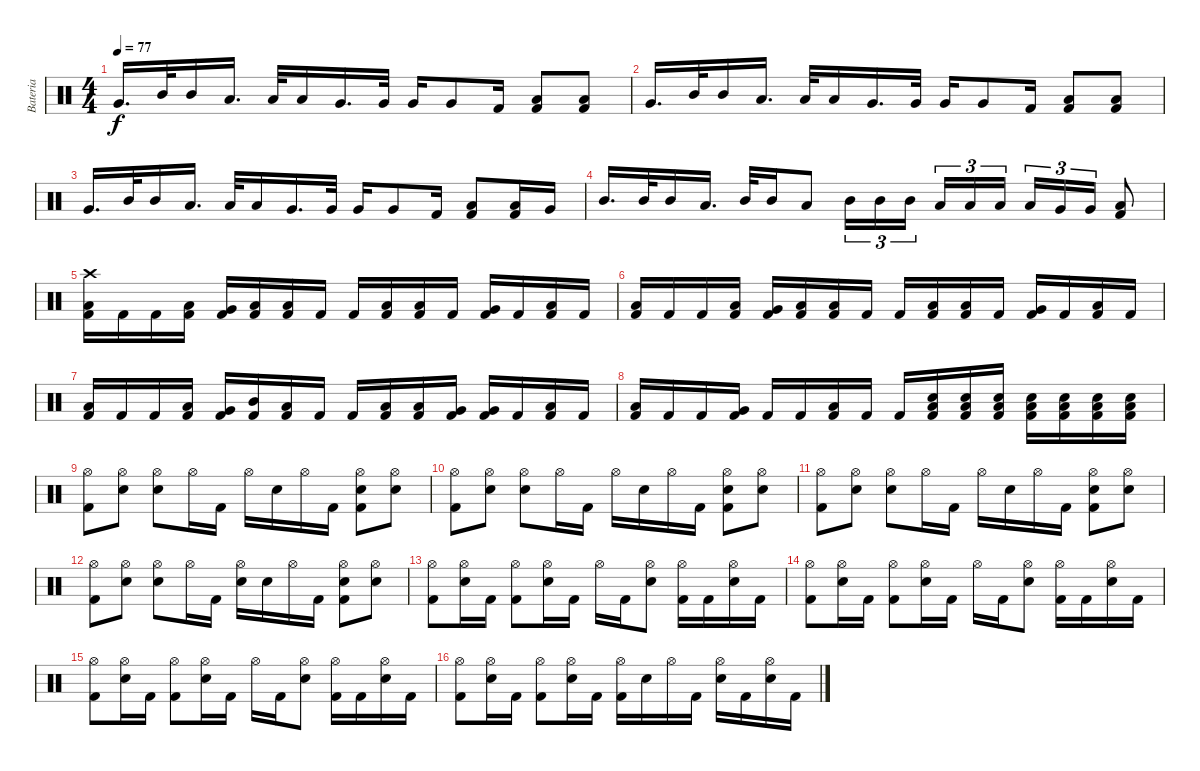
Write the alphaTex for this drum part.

\track ("Bateria" "Bateria") {instrument percussion}
\staff {score}
\articulation defaults
\ts (4 4)
\tempo 77
\clef neutral
\ks c "Very Low Tom (hit)".16{d dy f} "Mid Tom (hit)".32 "Mid Tom (hit)".16 "Low Tom (hit)".16{d} "Low Tom (hit)".32 "Low Tom (hit)".16 "Very Low Tom (hit)".16{d} "Very Low Tom (hit)".32 "Very Low Tom (hit)".16 "Very Low Tom (hit)".8 "Kick (hit) 2".16
("Low Floor Tom (hit)" "Kick (hit) 2").8 ("Low Floor Tom (hit)" "Kick (hit) 2").8 |
"Very Low Tom (hit)".16{d} "Mid Tom (hit)".32 "Mid Tom (hit)".16 "Low Tom (hit)".16{d} "Low Tom (hit)".32 "Low Tom (hit)".16 "Very Low Tom (hit)".16{d} "Very Low Tom (hit)".32 "Very Low Tom (hit)".16 "Very Low Tom (hit)".8 "Kick (hit) 2".16 ("Low Floor Tom (hit)" "Kick (hit) 2").8 ("Low Floor Tom (hit)" "Kick (hit) 2").8 |
"Very Low Tom (hit)".16{d} "Mid Tom (hit)".32 "Mid Tom (hit)".16 "Low Tom (hit)".16{d} "Low Tom (hit)".32 "Low Tom (hit)".16 "Very Low Tom (hit)".16{d} "Very Low Tom (hit)".32 "Very Low Tom (hit)".16 "Very Low Tom (hit)".8 "Kick (hit) 2".16 ("Low Floor Tom (hit)" "Kick (hit) 2").8 ("Low Floor Tom (hit)" "Kick (hit) 2").16 "Very Low Tom (hit)".16 |
"Mid Tom (hit)".16{d} "Mid Tom (hit)".32 "Mid Tom (hit)".16 "Low Tom (hit)".16{d} "Mid Tom (hit)".32 "Mid Tom (hit)".16 "Low Tom (hit)".8 "Mid Tom (hit)".16{tu (3 2)} "Mid Tom (hit)".16{tu (3 2)} "Mid Tom (hit)".16{tu (3 2) beam splitsecondary} "Low Tom (hit)".16{tu (3 2)} "Low Tom (hit)".16{tu (3 2)} "Low Tom (hit)".16{tu (3 2)} "Low Tom (hit)".16{tu (3 2)} "Very Low Tom (hit)".16{tu (3 2)} "Very Low Tom (hit)".16{tu (3 2)} ("Low Floor Tom (hit)" "Kick (hit) 2").8 |
("Crash high (hit)" "Low Tom (hit)" "Kick (hit) 2").16 "Kick (hit) 2".16 "Kick (hit) 2".16 ("Low Tom (hit)" "Kick (hit) 2").16 ("Very Low Tom (hit)" "Kick (hit) 2").16 ("Low Floor Tom (hit)" "Kick (hit) 2").16 ("Low Tom (hit)" "Kick (hit) 2").16 "Kick (hit) 2".16 "Kick (hit) 2".16 ("Low Tom (hit)" "Kick (hit) 2").16 ("Low Tom (hit)" "Kick (hit) 2").16 "Kick (hit) 2".16 ("Very Low Tom (hit)" "Kick (hit) 2").16 "Kick (hit) 2".16 ("Low Floor Tom (hit)" "Kick (hit) 2").16 "Kick (hit) 2".16 |
("Low Tom (hit)" "Kick (hit) 2").16 "Kick (hit) 2".16 "Kick (hit) 2".16 ("Low Tom (hit)" "Kick (hit) 2").16 ("Very Low Tom (hit)" "Kick (hit) 2").16 ("Low Floor Tom (hit)" "Kick (hit) 2").16 ("Low Tom (hit)" "Kick (hit) 2").16 "Kick (hit) 2".16 "Kick (hit) 2".16 ("Low Tom (hit)" "Kick (hit) 2").16 ("Low Tom (hit)" "Kick (hit) 2").16 "Kick (hit) 2".16 ("Very Low Tom (hit)" "Kick (hit) 2").16 "Kick (hit) 2".16 ("Low Floor Tom (hit)" "Kick (hit) 2").16 "Kick (hit) 2".16 |
("Low Tom (hit)" "Kick (hit) 2").16 "Kick (hit) 2".16 "Kick (hit) 2".16 ("Low Tom (hit)" "Kick (hit) 2").16 ("Very Low Tom (hit)" "Kick (hit) 2").16 ("Mid Tom (hit)" "Kick (hit) 2").16 ("Low Tom (hit)" "Kick (hit) 2").16 "Kick (hit) 2".16 "Kick (hit) 2".16 ("Low Tom (hit)" "Kick (hit) 2").16 ("Low Tom (hit)" "Kick (hit) 2").16 ("Very Low Tom (hit)" "Kick (hit) 2").16 ("Very Low Tom (hit)" "Kick (hit) 2").16 "Kick (hit) 2".16 ("Low Floor Tom (hit)" "Kick (hit) 2").16 "Kick (hit) 2".16 |
("Low Tom (hit)" "Kick (hit) 2").16 "Kick (hit) 2".16 "Kick (hit) 2".16 ("Very Low Tom (hit)" "Kick (hit) 2").16 "Kick (hit) 2".16 "Kick (hit) 2".16 ("Low Floor Tom (hit)" "Kick (hit) 2").16 "Kick (hit) 2".16 "Kick (hit) 2".16 ("Low Tom (hit)" "Electric Snare (hit)" "Kick (hit) 2").16 ("Low Tom (hit)" "Electric Snare (hit)" "Kick (hit) 2").16 ("Low Tom (hit)" "Electric Snare (hit)" "Kick (hit) 2").16 ("Low Tom (hit)" "Electric Snare (hit)" "Kick (hit) 2").16 ("Low Tom (hit)" "Electric Snare (hit)" "Kick (hit) 2").16 ("Low Tom (hit)" "Electric Snare (hit)" "Kick (hit) 2").16 ("Low Tom (hit)" "Electric Snare (hit)" "Kick (hit) 2").16 |
("Hi-Hat (open)" "Kick (hit) 2").8 ("Hi-Hat (open)" "Electric Snare (hit)").8 ("Hi-Hat (open)" "Electric Snare (hit)").8 "Hi-Hat (open)".16 "Kick (hit) 2".16 "Hi-Hat (open)".16 "Electric Snare (hit)".16 "Hi-Hat (open)".16 "Kick (hit) 2".16 ("Hi-Hat (open)" "Electric Snare (hit)" "Kick (hit) 2").8 ("Hi-Hat (open)" "Electric Snare (hit)").8 |
("Hi-Hat (open)" "Kick (hit) 2").8 ("Hi-Hat (open)" "Electric Snare (hit)").8 ("Hi-Hat (open)" "Electric Snare (hit)").8 "Hi-Hat (open)".16 "Kick (hit) 2".16 "Hi-Hat (open)".16 "Electric Snare (hit)".16 "Hi-Hat (open)".16 "Kick (hit) 2".16 ("Hi-Hat (open)" "Electric Snare (hit)" "Kick (hit) 2").8 ("Hi-Hat (open)" "Electric Snare (hit)").8 |
("Hi-Hat (open)" "Kick (hit) 2").8 ("Hi-Hat (open)" "Electric Snare (hit)").8 ("Hi-Hat (open)" "Electric Snare (hit)").8 "Hi-Hat (open)".16 "Kick (hit) 2".16 "Hi-Hat (open)".16 "Electric Snare (hit)".16 "Hi-Hat (open)".16 "Kick (hit) 2".16 ("Hi-Hat (open)" "Electric Snare (hit)" "Kick (hit) 2").8 ("Hi-Hat (open)" "Electric Snare (hit)").8 |
("Hi-Hat (open)" "Kick (hit) 2").8 ("Hi-Hat (open)" "Electric Snare (hit)").8 ("Hi-Hat (open)" "Electric Snare (hit)").8 "Hi-Hat (open)".16 "Kick (hit) 2".16 ("Hi-Hat (open)" "Electric Snare (hit)").16 "Electric Snare (hit)".16 "Hi-Hat (open)".16 "Kick (hit) 2".16 ("Hi-Hat (open)" "Electric Snare (hit)" "Kick (hit) 2").8 ("Hi-Hat (open)" "Electric Snare (hit)").8 |
("Hi-Hat (open)" "Kick (hit) 2").8 ("Hi-Hat (open)" "Electric Snare (hit)").16 "Kick (hit) 2".16 ("Hi-Hat (open)" "Kick (hit) 2").8 ("Hi-Hat (open)" "Electric Snare (hit)").16 "Kick (hit) 2".16 "Hi-Hat (open)".16 "Kick (hit) 2".16 ("Hi-Hat (open)" "Electric Snare (hit)").8 ("Hi-Hat (open)" "Kick (hit) 2").16 "Kick (hit) 2".16 ("Hi-Hat (open)" "Electric Snare (hit)").16 "Kick (hit) 2".16 |
("Hi-Hat (open)" "Kick (hit) 2").8 ("Hi-Hat (open)" "Electric Snare (hit)").16 "Kick (hit) 2".16 ("Hi-Hat (open)" "Kick (hit) 2").8 ("Hi-Hat (open)" "Electric Snare (hit)").16 "Kick (hit) 2".16 "Hi-Hat (open)".16 "Kick (hit) 2".16 ("Hi-Hat (open)" "Electric Snare (hit)").8 ("Hi-Hat (open)" "Kick (hit) 2").16 "Kick (hit) 2".16 ("Hi-Hat (open)" "Electric Snare (hit)").16 "Kick (hit) 2".16 |
("Hi-Hat (open)" "Kick (hit) 2").8 ("Hi-Hat (open)" "Electric Snare (hit)").16 "Kick (hit) 2".16 ("Hi-Hat (open)" "Kick (hit) 2").8 ("Hi-Hat (open)" "Electric Snare (hit)").16 "Kick (hit) 2".16 "Hi-Hat (open)".16 "Kick (hit) 2".16 ("Hi-Hat (open)" "Electric Snare (hit)").8 ("Hi-Hat (open)" "Kick (hit) 2").16 "Kick (hit) 2".16 ("Hi-Hat (open)" "Electric Snare (hit)").16 "Kick (hit) 2".16 |
("Hi-Hat (open)" "Kick (hit) 2").8 ("Hi-Hat (open)" "Electric Snare (hit)").16 "Kick (hit) 2".16 ("Hi-Hat (open)" "Kick (hit) 2").8 ("Hi-Hat (open)" "Electric Snare (hit)").16 "Kick (hit) 2".16 ("Hi-Hat (open)" "Kick (hit) 2").16 "Electric Snare (hit)".16 "Hi-Hat (open)".16 "Kick (hit) 2".16 ("Hi-Hat (open)" "Electric Snare (hit)").16 "Kick (hit) 2".16 ("Hi-Hat (open)" "Electric Snare (hit)").16 "Kick (hit) 2".16
